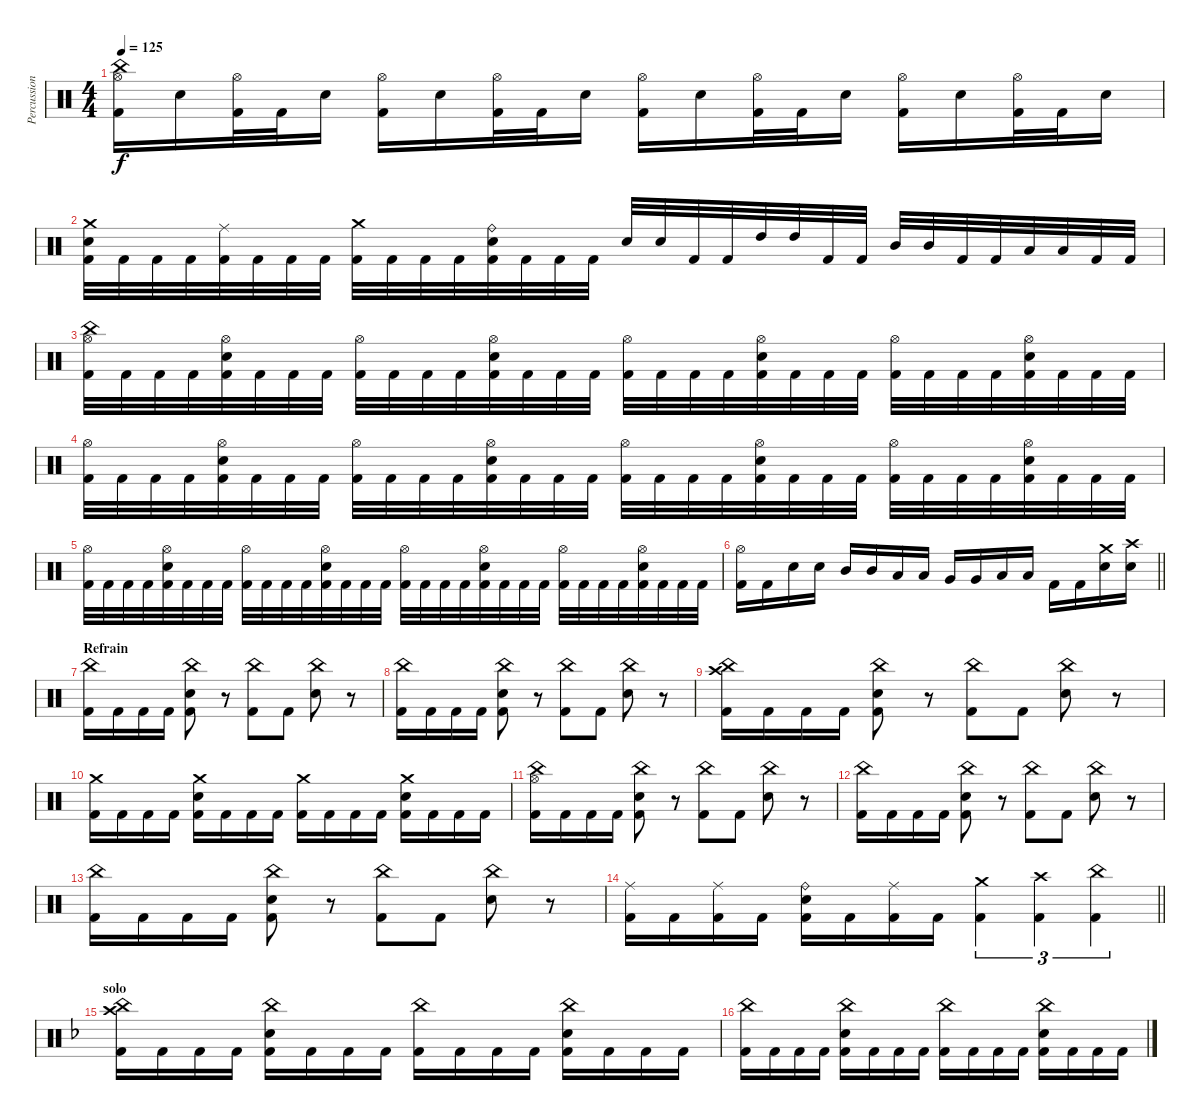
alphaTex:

\track ("Percussions" "Percussion") {instrument percussion}
\staff {score}
\articulation defaults
\ts (4 4)
\tempo 125
\clef neutral
\ks c
("Hi-Hat (open)" "China (hit)" "Kick (hit) 2").16{dy f} "Electric Snare (hit)".16 ("Hi-Hat (open)" "Kick (hit) 2").32 "Kick (hit) 2".32 "Electric Snare (hit)".16 ("Hi-Hat (open)" "Kick (hit) 2").16 "Electric Snare (hit)".16 ("Hi-Hat (open)" "Kick (hit) 2").32 "Kick (hit) 2".32 "Electric Snare (hit)".16 ("Hi-Hat (open)" "Kick (hit) 2").16 "Electric Snare (hit)".16 ("Hi-Hat (open)" "Kick (hit) 2").32 "Kick (hit) 2".32 "Electric Snare (hit)".16 ("Hi-Hat (open)" "Kick (hit) 2").16 "Electric Snare (hit)".16 ("Hi-Hat (open)" "Kick (hit) 2").32 "Kick (hit) 2".32 "Electric Snare (hit)".16 |
("Crash medium (hit)" "Electric Snare (hit)" "Kick (hit) 2").32 "Kick (hit) 2".32 "Kick (hit) 2".32 "Kick (hit) 2".32 ("Ride (middle)" "Kick (hit) 2").32 "Kick (hit) 2".32 "Kick (hit) 2".32 "Kick (hit) 2".32 ("Crash medium (hit)" "Kick (hit) 2").32 "Kick (hit) 2".32 "Kick (hit) 2".32 "Kick (hit) 2".32 ("Ride (bell)" "Electric Snare (hit)" "Kick (hit) 2").32 "Kick (hit) 2".32 "Kick (hit) 2".32 "Kick (hit) 2".32 "Electric Snare (hit)".32 "Electric Snare (hit)".32 "Kick (hit) 2".32 "Kick (hit) 2".32 "High Tom (hit)".32 "High Tom (hit)".32 "Kick (hit) 2".32 "Kick (hit) 2".32 "Mid Tom (hit)".32 "Mid Tom (hit)".32 "Kick (hit) 2".32 "Kick (hit) 2".32 "Low Tom (hit)".32 "Low Tom (hit)".32 "Kick (hit) 2".32 "Kick (hit) 2".32 |
("Hi-Hat (open)" "China (hit)" "Kick (hit) 2").32 "Kick (hit) 2".32 "Kick (hit) 2".32 "Kick (hit) 2".32 ("Hi-Hat (open)" "Electric Snare (hit)" "Kick (hit) 2").32 "Kick (hit) 2".32 "Kick (hit) 2".32 "Kick (hit) 2".32 ("Hi-Hat (open)" "Kick (hit) 2").32 "Kick (hit) 2".32 "Kick (hit) 2".32 "Kick (hit) 2".32 ("Hi-Hat (open)" "Electric Snare (hit)" "Kick (hit) 2").32 "Kick (hit) 2".32 "Kick (hit) 2".32 "Kick (hit) 2".32 ("Hi-Hat (open)" "Kick (hit) 2").32 "Kick (hit) 2".32 "Kick (hit) 2".32 "Kick (hit) 2".32 ("Hi-Hat (open)" "Electric Snare (hit)" "Kick (hit) 2").32 "Kick (hit) 2".32 "Kick (hit) 2".32 "Kick (hit) 2".32 ("Hi-Hat (open)" "Kick (hit) 2").32 "Kick (hit) 2".32 "Kick (hit) 2".32 "Kick (hit) 2".32 ("Hi-Hat (open)" "Electric Snare (hit)" "Kick (hit) 2").32 "Kick (hit) 2".32 "Kick (hit) 2".32 "Kick (hit) 2".32 |
("Hi-Hat (open)" "Kick (hit) 2").32 "Kick (hit) 2".32 "Kick (hit) 2".32 "Kick (hit) 2".32 ("Hi-Hat (open)" "Electric Snare (hit)" "Kick (hit) 2").32 "Kick (hit) 2".32 "Kick (hit) 2".32 "Kick (hit) 2".32 ("Hi-Hat (open)" "Kick (hit) 2").32 "Kick (hit) 2".32 "Kick (hit) 2".32 "Kick (hit) 2".32 ("Hi-Hat (open)" "Electric Snare (hit)" "Kick (hit) 2").32 "Kick (hit) 2".32 "Kick (hit) 2".32 "Kick (hit) 2".32 ("Hi-Hat (open)" "Kick (hit) 2").32 "Kick (hit) 2".32 "Kick (hit) 2".32 "Kick (hit) 2".32 ("Hi-Hat (open)" "Electric Snare (hit)" "Kick (hit) 2").32 "Kick (hit) 2".32 "Kick (hit) 2".32 "Kick (hit) 2".32 ("Hi-Hat (open)" "Kick (hit) 2").32 "Kick (hit) 2".32 "Kick (hit) 2".32 "Kick (hit) 2".32 ("Hi-Hat (open)" "Electric Snare (hit)" "Kick (hit) 2").32 "Kick (hit) 2".32 "Kick (hit) 2".32 "Kick (hit) 2".32 |
("Hi-Hat (open)" "Kick (hit) 2").32 "Kick (hit) 2".32 "Kick (hit) 2".32 "Kick (hit) 2".32 ("Hi-Hat (open)" "Electric Snare (hit)" "Kick (hit) 2").32 "Kick (hit) 2".32 "Kick (hit) 2".32 "Kick (hit) 2".32 ("Hi-Hat (open)" "Kick (hit) 2").32 "Kick (hit) 2".32 "Kick (hit) 2".32 "Kick (hit) 2".32 ("Hi-Hat (open)" "Electric Snare (hit)" "Kick (hit) 2").32 "Kick (hit) 2".32 "Kick (hit) 2".32 "Kick (hit) 2".32 ("Hi-Hat (open)" "Kick (hit) 2").32 "Kick (hit) 2".32 "Kick (hit) 2".32 "Kick (hit) 2".32 ("Hi-Hat (open)" "Electric Snare (hit)" "Kick (hit) 2").32 "Kick (hit) 2".32 "Kick (hit) 2".32 "Kick (hit) 2".32 ("Hi-Hat (open)" "Kick (hit) 2").32 "Kick (hit) 2".32 "Kick (hit) 2".32 "Kick (hit) 2".32 ("Hi-Hat (open)" "Electric Snare (hit)" "Kick (hit) 2").32 "Kick (hit) 2".32 "Kick (hit) 2".32 "Kick (hit) 2".32 |
\barLineRight lightlight
("Hi-Hat (open)" "Kick (hit) 2").16 "Kick (hit) 2".16 "Electric Snare (hit)".16 "Electric Snare (hit)".16 "Mid Tom (hit)".16 "Mid Tom (hit)".16 "Low Tom (hit)".16 "Low Tom (hit)".16 "Very Low Tom (hit)".16 "Very Low Tom (hit)".16 "Low Floor Tom (hit)".16 "Low Floor Tom (hit)".16 "Kick (hit) 2".16 "Kick (hit) 2".16 ("Crash medium (hit)" "Electric Snare (hit)").16 ("Crash high (hit)" "Electric Snare (hit)").16 |
\section ("" "Refrain")
("China (hit)" "Kick (hit) 2").16 "Kick (hit) 2".16 "Kick (hit) 2".16 "Kick (hit) 2".16 ("China (hit)" "Electric Snare (hit)" "Kick (hit) 2").8 r.8 ("China (hit)" "Kick (hit) 2").8 "Kick (hit) 2".8 ("China (hit)" "Electric Snare (hit)").8 r.8 |
("China (hit)" "Kick (hit) 2").16 "Kick (hit) 2".16 "Kick (hit) 2".16 "Kick (hit) 2".16 ("China (hit)" "Electric Snare (hit)" "Kick (hit) 2").8 r.8 ("China (hit)" "Kick (hit) 2").8 "Kick (hit) 2".8 ("China (hit)" "Electric Snare (hit)").8 r.8 |
("China (hit)" "Crash high (hit)" "Kick (hit) 2").16 "Kick (hit) 2".16 "Kick (hit) 2".16 "Kick (hit) 2".16 ("China (hit)" "Electric Snare (hit)" "Kick (hit) 2").8 r.8 ("China (hit)" "Kick (hit) 2").8 "Kick (hit) 2".8 ("China (hit)" "Electric Snare (hit)").8 r.8 |
("Crash medium (hit)" "Kick (hit) 2").16 "Kick (hit) 2".16 "Kick (hit) 2".16 "Kick (hit) 2".16 ("Crash medium (hit)" "Electric Snare (hit)" "Kick (hit) 2").16 "Kick (hit) 2".16 "Kick (hit) 2".16 "Kick (hit) 2".16 ("Crash medium (hit)" "Kick (hit) 2").16 "Kick (hit) 2".16 "Kick (hit) 2".16 "Kick (hit) 2".16 ("Crash medium (hit)" "Electric Snare (hit)" "Kick (hit) 2").16 "Kick (hit) 2".16 "Kick (hit) 2".16 "Kick (hit) 2".16 |
("China (hit)" "Hi-Hat (open)" "Kick (hit) 2").16 "Kick (hit) 2".16 "Kick (hit) 2".16 "Kick (hit) 2".16 ("China (hit)" "Electric Snare (hit)" "Kick (hit) 2").8 r.8 ("China (hit)" "Kick (hit) 2").8 "Kick (hit) 2".8 ("China (hit)" "Electric Snare (hit)").8 r.8 |
("China (hit)" "Kick (hit) 2").16 "Kick (hit) 2".16 "Kick (hit) 2".16 "Kick (hit) 2".16 ("China (hit)" "Electric Snare (hit)" "Kick (hit) 2").8 r.8 ("China (hit)" "Kick (hit) 2").8 "Kick (hit) 2".8 ("China (hit)" "Electric Snare (hit)").8 r.8 |
("China (hit)" "Kick (hit) 2").16 "Kick (hit) 2".16 "Kick (hit) 2".16 "Kick (hit) 2".16 ("China (hit)" "Electric Snare (hit)" "Kick (hit) 2").8 r.8 ("China (hit)" "Kick (hit) 2").8 "Kick (hit) 2".8 ("China (hit)" "Electric Snare (hit)").8 r.8 |
\barLineRight lightlight
("Ride (middle)" "Kick (hit) 2").16 "Kick (hit) 2".16 ("Ride (middle)" "Kick (hit) 2").16 "Kick (hit) 2".16 ("Ride (bell)" "Electric Snare (hit)" "Kick (hit) 2").16 "Kick (hit) 2".16 ("Ride (middle)" "Kick (hit) 2").16 "Kick (hit) 2".16 ("Crash medium (hit)" "Kick (hit) 2").4{tu (3 2)} ("Crash high (hit)" "Kick (hit) 2").4{tu (3 2)} ("China (hit)" "Kick (hit) 2").4{tu (3 2)} |
\section ("" "solo")
\ks dminor
("China (hit)" "Crash high (hit)" "Kick (hit) 2").16 "Kick (hit) 2".16 "Kick (hit) 2".16 "Kick (hit) 2".16 ("China (hit)" "Electric Snare (hit)" "Kick (hit) 2").16 "Kick (hit) 2".16 "Kick (hit) 2".16 "Kick (hit) 2".16 ("China (hit)" "Kick (hit) 2").16 "Kick (hit) 2".16 "Kick (hit) 2".16 "Kick (hit) 2".16 ("China (hit)" "Electric Snare (hit)" "Kick (hit) 2").16 "Kick (hit) 2".16 "Kick (hit) 2".16 "Kick (hit) 2".16 |
("China (hit)" "Kick (hit) 2").16 "Kick (hit) 2".16 "Kick (hit) 2".16 "Kick (hit) 2".16 ("China (hit)" "Electric Snare (hit)" "Kick (hit) 2").16 "Kick (hit) 2".16 "Kick (hit) 2".16 "Kick (hit) 2".16 ("China (hit)" "Kick (hit) 2").16 "Kick (hit) 2".16 "Kick (hit) 2".16 "Kick (hit) 2".16 ("China (hit)" "Electric Snare (hit)" "Kick (hit) 2").16 "Kick (hit) 2".16 "Kick (hit) 2".16 "Kick (hit) 2".16
